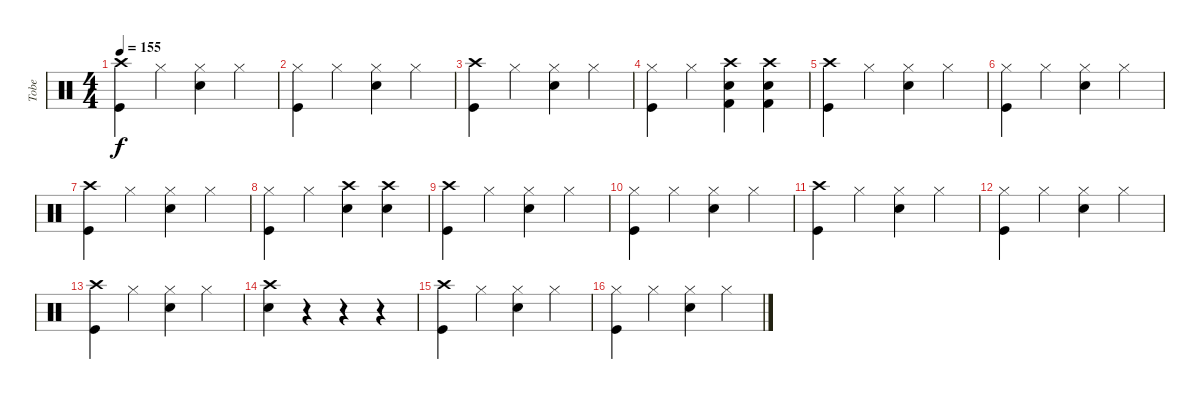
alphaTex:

\track ("Tobe" "Tobe") {instrument percussion}
\staff {score}
\articulation defaults
\ts (4 4)
\tempo 155
\clef neutral
\ks c
("Crash high (hit)" "Kick (hit)").4{dy f} "Hi-Hat (closed)".4 ("Hi-Hat (closed)" "Electric Snare (hit)").4 "Hi-Hat (closed)".4 |
("Hi-Hat (closed)" "Kick (hit)").4 "Hi-Hat (closed)".4 ("Hi-Hat (closed)" "Electric Snare (hit)").4 "Hi-Hat (closed)".4 |
("Crash high (hit)" "Kick (hit)").4 "Hi-Hat (closed)".4 ("Hi-Hat (closed)" "Electric Snare (hit)").4 "Hi-Hat (closed)".4 |
("Hi-Hat (closed)" "Kick (hit)").4 "Hi-Hat (closed)".4 ("Crash high (hit)" "Electric Snare (hit)" "Kick (hit) 2").4 ("Crash high (hit)" "Electric Snare (hit)" "Kick (hit) 2").4 |
("Crash high (hit)" "Kick (hit)").4 "Hi-Hat (closed)".4 ("Hi-Hat (closed)" "Electric Snare (hit)").4 "Hi-Hat (closed)".4 |
("Hi-Hat (closed)" "Kick (hit)").4 "Hi-Hat (closed)".4 ("Hi-Hat (closed)" "Electric Snare (hit)").4 "Hi-Hat (closed)".4 |
("Crash high (hit)" "Kick (hit)").4 "Hi-Hat (closed)".4 ("Hi-Hat (closed)" "Electric Snare (hit)").4 "Hi-Hat (closed)".4 |
("Hi-Hat (closed)" "Kick (hit)").4 "Hi-Hat (closed)".4 ("Crash high (hit)" "Electric Snare (hit)").4 ("Crash high (hit)" "Electric Snare (hit)").4 |
("Crash high (hit)" "Kick (hit)").4 "Hi-Hat (closed)".4 ("Hi-Hat (closed)" "Electric Snare (hit)").4 "Hi-Hat (closed)".4 |
("Hi-Hat (closed)" "Kick (hit)").4 "Hi-Hat (closed)".4 ("Hi-Hat (closed)" "Electric Snare (hit)").4 "Hi-Hat (closed)".4 |
("Crash high (hit)" "Kick (hit)").4 "Hi-Hat (closed)".4 ("Hi-Hat (closed)" "Electric Snare (hit)").4 "Hi-Hat (closed)".4 |
("Hi-Hat (closed)" "Kick (hit)").4 "Hi-Hat (closed)".4 ("Hi-Hat (closed)" "Electric Snare (hit)").4 "Hi-Hat (closed)".4 |
("Crash high (hit)" "Kick (hit)").4 "Hi-Hat (closed)".4 ("Hi-Hat (closed)" "Electric Snare (hit)").4 "Hi-Hat (closed)".4 |
("Crash high (hit)" "Electric Snare (hit)").4 r.4 r.4 r.4 |
("Crash high (hit)" "Kick (hit)").4 "Hi-Hat (closed)".4 ("Hi-Hat (closed)" "Electric Snare (hit)").4 "Hi-Hat (closed)".4 |
("Hi-Hat (closed)" "Kick (hit)").4 "Hi-Hat (closed)".4 ("Hi-Hat (closed)" "Electric Snare (hit)").4 "Hi-Hat (closed)".4
